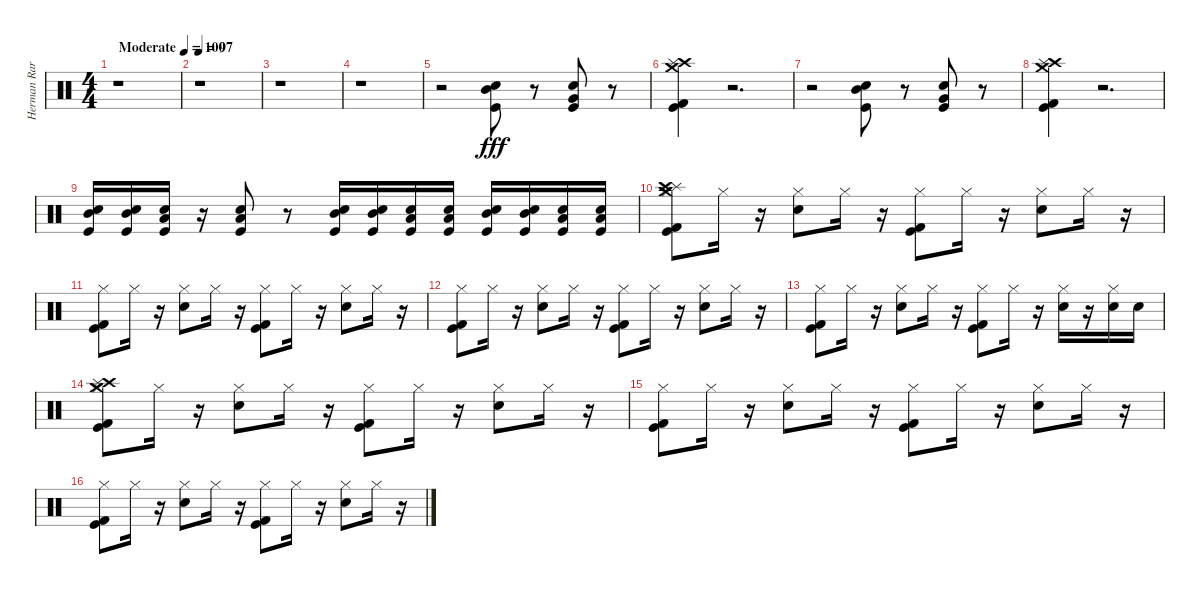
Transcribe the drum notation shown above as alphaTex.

\track ("Herman Rarebel" "Herman Rar") {instrument percussion}
\staff {score}
\articulation defaults
\ts (4 4)
\tempo (100 "Moderate")
\clef neutral
\ks c
r.1{dy fff} |
\tempo 97
r.1 |
r.1 |
r.1 |
r.2 ("Mid Tom (hit)" "Kick (hit)" "Electric Snare (hit)").8 r.8 ("Very Low Tom (hit)" "Kick (hit)" "Electric Snare (hit)").8 r.8 |
("Kick (hit) 2" "Kick (hit)" "Crash high (hit)" "Splash (hit)" "Crash medium (hit)").4 r.2{d} |
r.2 ("Mid Tom (hit)" "Kick (hit)" "Electric Snare (hit)").8 r.8 ("Very Low Tom (hit)" "Kick (hit)" "Electric Snare (hit)").8 r.8 |
("Kick (hit) 2" "Kick (hit)" "Crash high (hit)" "Splash (hit)" "Crash medium (hit)").4 r.2{d} |
("Mid Tom (hit)" "Kick (hit)" "Electric Snare (hit)").16 ("Mid Tom (hit)" "Kick (hit)" "Electric Snare (hit)").16 ("Low Tom (hit)" "Kick (hit)" "Electric Snare (hit)").16 r.16 ("Kick (hit)" "Low Floor Tom (hit)" "Electric Snare (hit)").8 r.8 ("Mid Tom (hit)" "Kick (hit)" "Electric Snare (hit)").16 ("Mid Tom (hit)" "Kick (hit)" "Electric Snare (hit)").16 ("Low Tom (hit)" "Kick (hit)" "Electric Snare (hit)").16 ("Kick (hit)" "Low Floor Tom (hit)" "Electric Snare (hit)").16 ("Mid Tom (hit)" "Kick (hit)" "Electric Snare (hit)").16 ("Mid Tom (hit)" "Kick (hit)" "Electric Snare (hit)").16 ("Low Tom (hit)" "Kick (hit)" "Electric Snare (hit)").16 ("Kick (hit)" "Low Floor Tom (hit)" "Electric Snare (hit)").16 |
("Kick (hit) 2" "Kick (hit)" "Crash medium (hit)" "Splash (hit)" "Crash high (hit)" "Hi-Hat (closed)").8 "Hi-Hat (closed)".16 r.16 ("Snare (hit) 2" "Hi-Hat (closed)").8 "Hi-Hat (closed)".16 r.16 ("Kick (hit) 2" "Kick (hit)" "Hi-Hat (closed)").8 "Hi-Hat (closed)".16 r.16 ("Snare (hit) 2" "Hi-Hat (closed)").8 "Hi-Hat (closed)".16 r.16 |
("Hi-Hat (closed)" "Kick (hit)" "Kick (hit) 2").8 "Hi-Hat (closed)".16 r.16 ("Snare (hit) 2" "Hi-Hat (closed)").8 "Hi-Hat (closed)".16 r.16 ("Kick (hit) 2" "Kick (hit)" "Hi-Hat (closed)").8 "Hi-Hat (closed)".16 r.16 ("Snare (hit) 2" "Hi-Hat (closed)").8 "Hi-Hat (closed)".16 r.16 |
("Hi-Hat (closed)" "Kick (hit)" "Kick (hit) 2").8 "Hi-Hat (closed)".16 r.16 ("Snare (hit) 2" "Hi-Hat (closed)").8 "Hi-Hat (closed)".16 r.16 ("Kick (hit) 2" "Kick (hit)" "Hi-Hat (closed)").8 "Hi-Hat (closed)".16 r.16 ("Snare (hit) 2" "Hi-Hat (closed)").8 "Hi-Hat (closed)".16 r.16 |
("Hi-Hat (closed)" "Kick (hit)" "Kick (hit) 2").8 "Hi-Hat (closed)".16 r.16 ("Snare (hit) 2" "Hi-Hat (closed)").8 "Hi-Hat (closed)".16 r.16 ("Kick (hit) 2" "Kick (hit)" "Hi-Hat (closed)").8 "Hi-Hat (closed)".16 r.16 ("Hi-Hat (closed)" "Snare (hit) 2").16 r.16 ("Hi-Hat (closed)" "Snare (hit) 2").16 "Snare (hit) 2".16 |
("Hi-Hat (closed)" "Crash high (hit)" "Splash (hit)" "Crash medium (hit)" "Kick (hit)" "Kick (hit) 2").8 "Hi-Hat (closed)".16 r.16 ("Snare (hit) 2" "Hi-Hat (closed)").8 "Hi-Hat (closed)".16 r.16 ("Kick (hit) 2" "Kick (hit)" "Hi-Hat (closed)").8 "Hi-Hat (closed)".16 r.16 ("Snare (hit) 2" "Hi-Hat (closed)").8 "Hi-Hat (closed)".16 r.16 |
("Hi-Hat (closed)" "Kick (hit)" "Kick (hit) 2").8 "Hi-Hat (closed)".16 r.16 ("Snare (hit) 2" "Hi-Hat (closed)").8 "Hi-Hat (closed)".16 r.16 ("Kick (hit) 2" "Kick (hit)" "Hi-Hat (closed)").8 "Hi-Hat (closed)".16 r.16 ("Snare (hit) 2" "Hi-Hat (closed)").8 "Hi-Hat (closed)".16 r.16 |
("Hi-Hat (closed)" "Kick (hit)" "Kick (hit) 2").8 "Hi-Hat (closed)".16 r.16 ("Snare (hit) 2" "Hi-Hat (closed)").8 "Hi-Hat (closed)".16 r.16 ("Kick (hit) 2" "Kick (hit)" "Hi-Hat (closed)").8 "Hi-Hat (closed)".16 r.16 ("Snare (hit) 2" "Hi-Hat (closed)").8 "Hi-Hat (closed)".16 r.16
